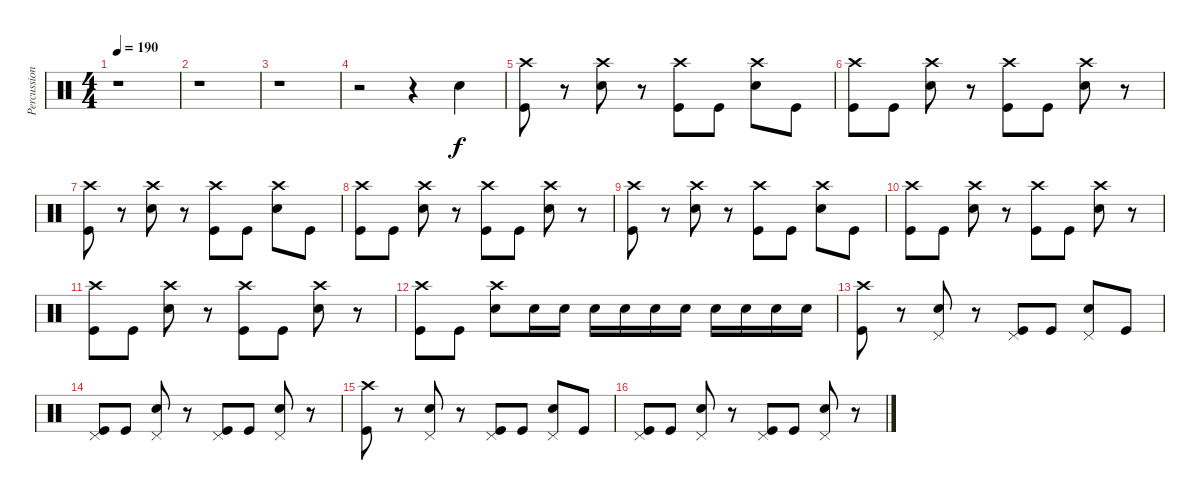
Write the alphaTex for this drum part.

\track ("Percussion" "Percussion") {instrument percussion}
\staff {score}
\articulation defaults
\ts (4 4)
\tempo 190
\clef neutral
\ks c
r.1{dy f} |
r.1 |
r.1 |
r.2 r.4 "Electric Snare (hit)".4 |
("Crash high (hit)" "Kick (hit)").8 r.8 ("Crash high (hit)" "Electric Snare (hit)").8 r.8 ("Crash high (hit)" "Kick (hit)").8 "Kick (hit)".8 ("Crash high (hit)" "Electric Snare (hit)").8 "Kick (hit)".8 |
("Crash high (hit)" "Kick (hit)").8 "Kick (hit)".8 ("Crash high (hit)" "Electric Snare (hit)").8 r.8 ("Crash high (hit)" "Kick (hit)").8 "Kick (hit)".8 ("Crash high (hit)" "Electric Snare (hit)").8 r.8 |
("Crash high (hit)" "Kick (hit)").8 r.8 ("Crash high (hit)" "Electric Snare (hit)").8 r.8 ("Crash high (hit)" "Kick (hit)").8 "Kick (hit)".8 ("Crash high (hit)" "Electric Snare (hit)").8 "Kick (hit)".8 |
("Crash high (hit)" "Kick (hit)").8 "Kick (hit)".8 ("Crash high (hit)" "Electric Snare (hit)").8 r.8 ("Crash high (hit)" "Kick (hit)").8 "Kick (hit)".8 ("Crash high (hit)" "Electric Snare (hit)").8 r.8 |
("Crash high (hit)" "Kick (hit)").8 r.8 ("Crash high (hit)" "Electric Snare (hit)").8 r.8 ("Crash high (hit)" "Kick (hit)").8 "Kick (hit)".8 ("Crash high (hit)" "Electric Snare (hit)").8 "Kick (hit)".8 |
("Crash high (hit)" "Kick (hit)").8 "Kick (hit)".8 ("Crash high (hit)" "Electric Snare (hit)").8 r.8 ("Crash high (hit)" "Kick (hit)").8 "Kick (hit)".8 ("Crash high (hit)" "Electric Snare (hit)").8 r.8 |
("Crash high (hit)" "Kick (hit)").8 "Kick (hit)".8 ("Crash high (hit)" "Electric Snare (hit)").8 r.8 ("Crash high (hit)" "Kick (hit)").8 "Kick (hit)".8 ("Crash high (hit)" "Electric Snare (hit)").8 r.8 |
("Crash high (hit)" "Kick (hit)").8 "Kick (hit)".8 ("Crash high (hit)" "Electric Snare (hit)").8 "Electric Snare (hit)".16 "Electric Snare (hit)".16 "Electric Snare (hit)".16 "Electric Snare (hit)".16 "Electric Snare (hit)".16 "Electric Snare (hit)".16 "Electric Snare (hit)".16 "Electric Snare (hit)".16 "Electric Snare (hit)".16 "Electric Snare (hit)".16 |
("Crash high (hit)" "Kick (hit)").8 r.8 ("Pedal Hi-Hat (hit)" "Electric Snare (hit)").8 r.8 ("Pedal Hi-Hat (hit)" "Kick (hit)").8 "Kick (hit)".8 ("Pedal Hi-Hat (hit)" "Electric Snare (hit)").8 "Kick (hit)".8 |
("Pedal Hi-Hat (hit)" "Kick (hit)").8 "Kick (hit)".8 ("Pedal Hi-Hat (hit)" "Electric Snare (hit)").8 r.8 ("Pedal Hi-Hat (hit)" "Kick (hit)").8 "Kick (hit)".8 ("Pedal Hi-Hat (hit)" "Electric Snare (hit)").8 r.8 |
("Crash high (hit)" "Kick (hit)").8 r.8 ("Pedal Hi-Hat (hit)" "Electric Snare (hit)").8 r.8 ("Pedal Hi-Hat (hit)" "Kick (hit)").8 "Kick (hit)".8 ("Pedal Hi-Hat (hit)" "Electric Snare (hit)").8 "Kick (hit)".8 |
("Pedal Hi-Hat (hit)" "Kick (hit)").8 "Kick (hit)".8 ("Pedal Hi-Hat (hit)" "Electric Snare (hit)").8 r.8 ("Pedal Hi-Hat (hit)" "Kick (hit)").8 "Kick (hit)".8 ("Pedal Hi-Hat (hit)" "Electric Snare (hit)").8 r.8
